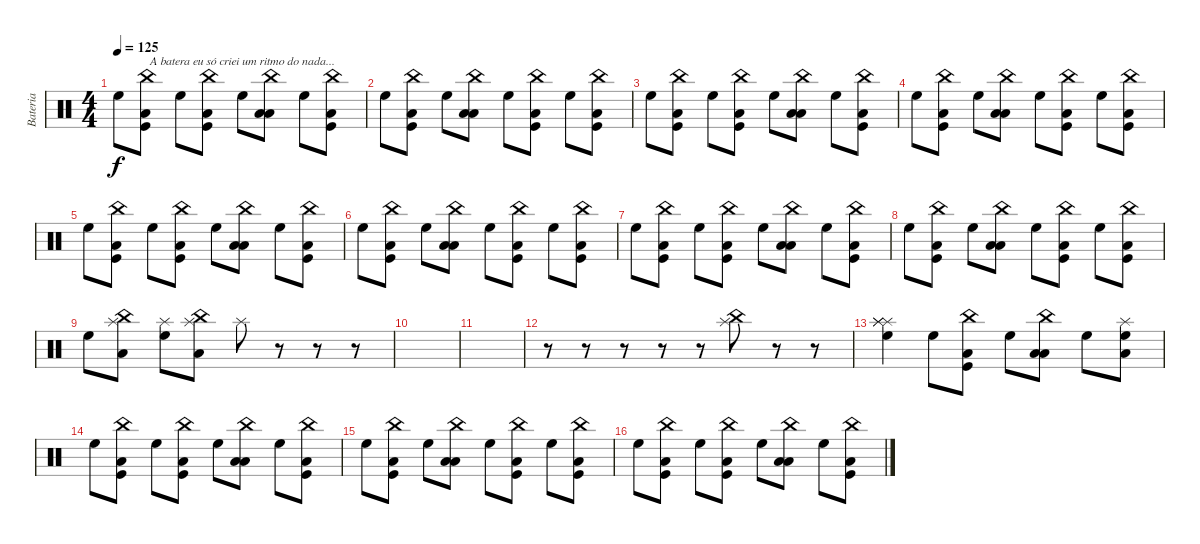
\track ("Bateria" "Bateria") {instrument percussion}
\staff {score}
\articulation defaults
\ts (4 4)
\tempo 125
\clef neutral
\ks c "High Floor Tom (hit)".8{dy f}
("Low Tom (hit)" "Kick (hit)" "China (hit)").8{txt "A batera eu só criei um ritmo do nada..."} "High Floor Tom (hit)".8 ("Low Tom (hit)" "Kick (hit)" "China (hit)").8 "High Floor Tom (hit)".8 ("Low Tom (hit)" "Low Tom (hit)" "China (hit)").8 "High Floor Tom (hit)".8 ("Low Tom (hit)" "Kick (hit)" "China (hit)").8 |
"High Floor Tom (hit)".8 ("Low Tom (hit)" "Kick (hit)" "China (hit)").8 "High Floor Tom (hit)".8 ("Low Tom (hit)" "Low Tom (hit)" "China (hit)").8 "High Floor Tom (hit)".8 ("Low Tom (hit)" "Kick (hit)" "China (hit)").8 "High Floor Tom (hit)".8 ("Low Tom (hit)" "Kick (hit)" "China (hit)").8 |
"High Floor Tom (hit)".8 ("Low Tom (hit)" "Kick (hit)" "China (hit)").8 "High Floor Tom (hit)".8 ("Low Tom (hit)" "Kick (hit)" "China (hit)").8 "High Floor Tom (hit)".8 ("Low Tom (hit)" "Low Tom (hit)" "China (hit)").8 "High Floor Tom (hit)".8 ("Low Tom (hit)" "Kick (hit)" "China (hit)").8 |
"High Floor Tom (hit)".8 ("Low Tom (hit)" "Kick (hit)" "China (hit)").8 "High Floor Tom (hit)".8 ("Low Tom (hit)" "Low Tom (hit)" "China (hit)").8 "High Floor Tom (hit)".8 ("Low Tom (hit)" "Kick (hit)" "China (hit)").8 "High Floor Tom (hit)".8 ("Low Tom (hit)" "Kick (hit)" "China (hit)").8 |
"High Floor Tom (hit)".8 ("Low Tom (hit)" "Kick (hit)" "China (hit)").8 "High Floor Tom (hit)".8 ("Low Tom (hit)" "Kick (hit)" "China (hit)").8 "High Floor Tom (hit)".8 ("Low Tom (hit)" "Low Tom (hit)" "China (hit)").8 "High Floor Tom (hit)".8 ("Low Tom (hit)" "Kick (hit)" "China (hit)").8 |
"High Floor Tom (hit)".8 ("Low Tom (hit)" "Kick (hit)" "China (hit)").8 "High Floor Tom (hit)".8 ("Low Tom (hit)" "Low Tom (hit)" "China (hit)").8 "High Floor Tom (hit)".8 ("Low Tom (hit)" "Kick (hit)" "China (hit)").8 "High Floor Tom (hit)".8 ("Low Tom (hit)" "Kick (hit)" "China (hit)").8 |
"High Floor Tom (hit)".8 ("Low Tom (hit)" "Kick (hit)" "China (hit)").8 "High Floor Tom (hit)".8 ("Low Tom (hit)" "Kick (hit)" "China (hit)").8 "High Floor Tom (hit)".8 ("Low Tom (hit)" "Low Tom (hit)" "China (hit)").8 "High Floor Tom (hit)".8 ("Low Tom (hit)" "Kick (hit)" "China (hit)").8 |
"High Floor Tom (hit)".8 ("Low Tom (hit)" "Kick (hit)" "China (hit)").8 "High Floor Tom (hit)".8 ("Low Tom (hit)" "Low Tom (hit)" "China (hit)").8 "High Floor Tom (hit)".8 ("Low Tom (hit)" "Kick (hit)" "China (hit)").8 "High Floor Tom (hit)".8 ("Low Tom (hit)" "Kick (hit)" "China (hit)").8 |
"High Floor Tom (hit)".8 ("Low Tom (hit)" "Splash (hit)" "China (hit)").8 ("Splash (hit)" "High Floor Tom (hit)").8 ("Low Tom (hit)" "Splash (hit)" "China (hit)").8 "Splash (hit)".8 r.8 r.8 r.8 |
|
|
r.8 r.8 r.8 r.8 r.8 ("Splash (hit)" "China (hit)").8 r.8 r.8 |
("Splash (hit)" "Splash (hit)" "Splash (hit)" "High Floor Tom (hit)").4 "High Floor Tom (hit)".8 ("Low Tom (hit)" "Kick (hit)" "China (hit)").8 "High Floor Tom (hit)".8 ("Low Tom (hit)" "Low Tom (hit)" "China (hit)").8 "High Floor Tom (hit)".8 ("Low Tom (hit)" "Splash (hit)" "High Floor Tom (hit)").8 |
"High Floor Tom (hit)".8 ("Low Tom (hit)" "Kick (hit)" "China (hit)").8 "High Floor Tom (hit)".8 ("Low Tom (hit)" "Kick (hit)" "China (hit)").8 "High Floor Tom (hit)".8 ("Low Tom (hit)" "Low Tom (hit)" "China (hit)").8 "High Floor Tom (hit)".8 ("Low Tom (hit)" "Kick (hit)" "China (hit)").8 |
"High Floor Tom (hit)".8 ("Low Tom (hit)" "Kick (hit)" "China (hit)").8 "High Floor Tom (hit)".8 ("Low Tom (hit)" "Low Tom (hit)" "China (hit)").8 "High Floor Tom (hit)".8 ("Low Tom (hit)" "Kick (hit)" "China (hit)").8 "High Floor Tom (hit)".8 ("Low Tom (hit)" "Kick (hit)" "China (hit)").8 |
"High Floor Tom (hit)".8 ("Low Tom (hit)" "Kick (hit)" "China (hit)").8 "High Floor Tom (hit)".8 ("Low Tom (hit)" "Kick (hit)" "China (hit)").8 "High Floor Tom (hit)".8 ("Low Tom (hit)" "Low Tom (hit)" "China (hit)").8 "High Floor Tom (hit)".8 ("Low Tom (hit)" "Kick (hit)" "China (hit)").8
